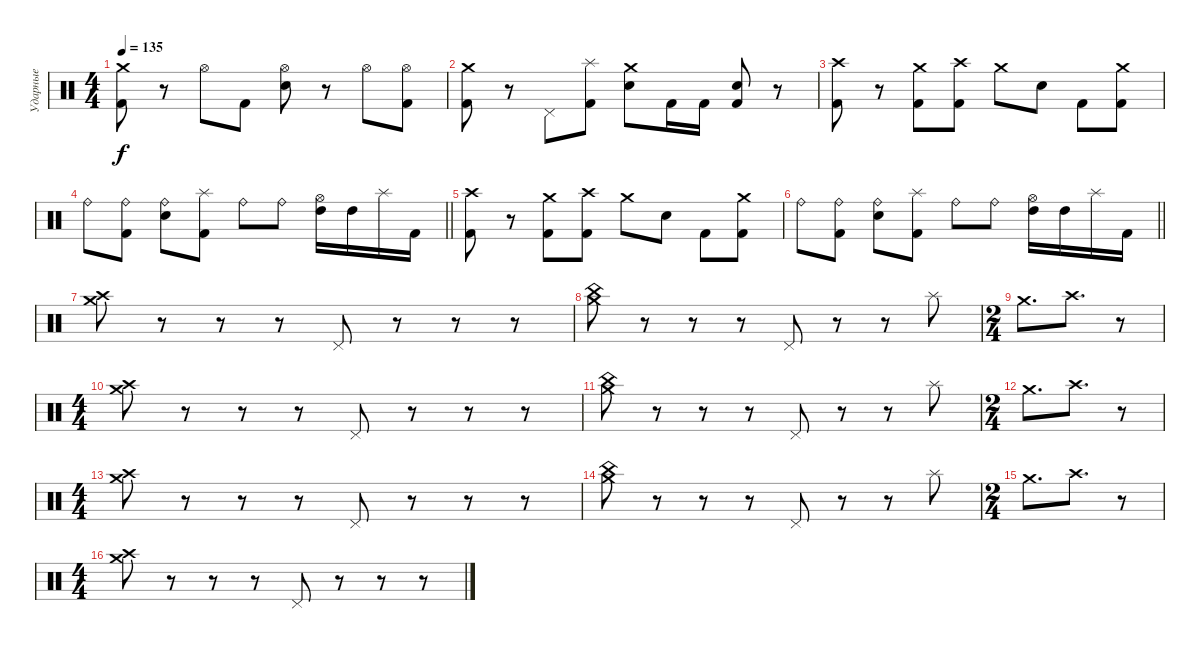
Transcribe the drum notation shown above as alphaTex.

\track ("Ударные" "Ударные") {instrument percussion}
\staff {score}
\articulation defaults
\ts (4 4)
\tempo 135
\clef neutral
\ks c
("Crash medium (hit)" "Kick (hit) 2").8{dy f} r.8 "Hi-Hat (open)".8 "Kick (hit) 2".8 ("Hi-Hat (open)" "Electric Snare (hit)").8 r.8 "Hi-Hat (open)".8 ("Hi-Hat (open)" "Kick (hit) 2").8 |
("Crash medium (hit)" "Kick (hit) 2").8 r.8 "Pedal Hi-Hat (hit)".8 ("Splash (hit)" "Kick (hit) 2").8 ("Crash medium (hit)" "Electric Snare (hit)").8 "Kick (hit) 2".16 "Kick (hit) 2".16 ("Electric Snare (hit)" "Kick (hit) 2").8 r.8 |
("Crash high (hit)" "Kick (hit) 2").8 r.8 ("Crash medium (hit)" "Kick (hit) 2").8 ("Crash high (hit)" "Kick (hit) 2").8 "Crash medium (hit)".8 "Electric Snare (hit)".8 "Kick (hit) 2".8 ("Crash medium (hit)" "Kick (hit) 2").8 |
\barLineRight lightlight "Ride (bell)".8
("Ride (bell)" "Kick (hit) 2").8 ("Ride (bell)" "Electric Snare (hit)").8 ("Splash (hit)" "Kick (hit) 2").8 "Ride (bell)".8 "Ride (bell)".8 ("Hi-Hat (open)" "High Tom (hit)").16 "High Tom (hit)".16 "Splash (hit)".16 "Kick (hit) 2".16 |
("Crash high (hit)" "Kick (hit) 2").8 r.8 ("Crash medium (hit)" "Kick (hit) 2").8 ("Crash high (hit)" "Kick (hit) 2").8 "Crash medium (hit)".8 "Electric Snare (hit)".8 "Kick (hit) 2".8 ("Crash medium (hit)" "Kick (hit) 2").8 |
\barLineRight lightlight "Ride (bell)".8
("Ride (bell)" "Kick (hit) 2").8 ("Ride (bell)" "Electric Snare (hit)").8 ("Splash (hit)" "Kick (hit) 2").8 "Ride (bell)".8 "Ride (bell)".8 ("Hi-Hat (open)" "High Tom (hit)").16 "High Tom (hit)".16 "Splash (hit)".16 "Kick (hit) 2".16 |
("Crash medium (hit)" "Crash high (hit)").8 r.8 r.8 r.8 "Pedal Hi-Hat (hit)".8 r.8 r.8 r.8 |
("China (hit)" "Crash medium (hit)").8 r.8 r.8 r.8 "Pedal Hi-Hat (hit)".8 r.8 r.8 "Splash (hit)".8 |
\ts (2 4)
"Crash medium (hit)".8{d} "Crash high (hit)".8{d} r.8 |
\ts (4 4)
("Crash medium (hit)" "Crash high (hit)").8 r.8 r.8 r.8 "Pedal Hi-Hat (hit)".8 r.8 r.8 r.8 |
("China (hit)" "Crash medium (hit)").8 r.8 r.8 r.8 "Pedal Hi-Hat (hit)".8 r.8 r.8 "Splash (hit)".8 |
\ts (2 4)
"Crash medium (hit)".8{d} "Crash high (hit)".8{d} r.8 |
\ts (4 4)
("Crash medium (hit)" "Crash high (hit)").8 r.8 r.8 r.8 "Pedal Hi-Hat (hit)".8 r.8 r.8 r.8 |
("China (hit)" "Crash medium (hit)").8 r.8 r.8 r.8 "Pedal Hi-Hat (hit)".8 r.8 r.8 "Splash (hit)".8 |
\ts (2 4)
"Crash medium (hit)".8{d} "Crash high (hit)".8{d} r.8 |
\ts (4 4)
("Crash medium (hit)" "Crash high (hit)").8 r.8 r.8 r.8 "Pedal Hi-Hat (hit)".8 r.8 r.8 r.8
